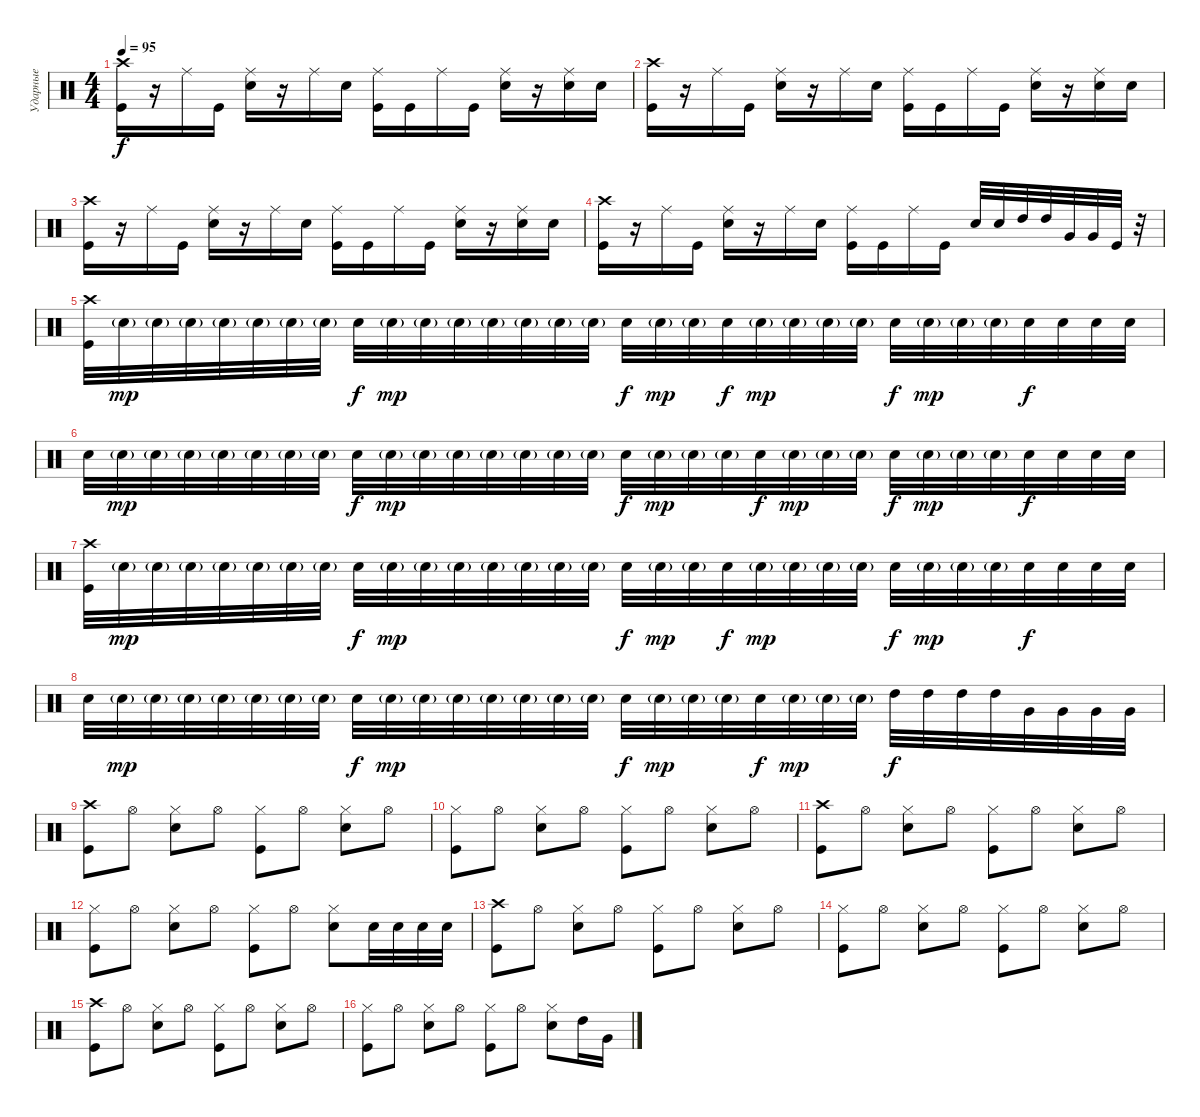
\track ("Ударные" "Ударные") {instrument percussion}
\staff {score}
\articulation defaults
\ts (4 4)
\tempo 95
\clef neutral
\ks c
("Kick (hit)" "Crash high (hit)").16{dy f} r.16 "Ride (middle)".16 "Kick (hit)".16 ("Ride (middle)" "Snare (hit) 2").16 r.16 "Ride (middle)".16 "Snare (hit) 2".16 ("Ride (middle)" "Kick (hit)").16 "Kick (hit)".16 "Ride (middle)".16 "Kick (hit)".16 ("Ride (middle)" "Snare (hit) 2").16 r.16 ("Ride (middle)" "Snare (hit) 2").16 "Snare (hit) 2".16 |
("Kick (hit)" "Crash high (hit)").16 r.16 "Ride (middle)".16 "Kick (hit)".16 ("Ride (middle)" "Snare (hit) 2").16 r.16 "Ride (middle)".16 "Snare (hit) 2".16 ("Ride (middle)" "Kick (hit)").16 "Kick (hit)".16 "Ride (middle)".16 "Kick (hit)".16 ("Ride (middle)" "Snare (hit) 2").16 r.16 ("Ride (middle)" "Snare (hit) 2").16 "Snare (hit) 2".16 |
("Kick (hit)" "Crash high (hit)").16 r.16 "Ride (middle)".16 "Kick (hit)".16 ("Ride (middle)" "Snare (hit) 2").16 r.16 "Ride (middle)".16 "Snare (hit) 2".16 ("Ride (middle)" "Kick (hit)").16 "Kick (hit)".16 "Ride (middle)".16 "Kick (hit)".16 ("Ride (middle)" "Snare (hit) 2").16 r.16 ("Ride (middle)" "Snare (hit) 2").16 "Snare (hit) 2".16 |
("Kick (hit)" "Crash high (hit)").16 r.16 "Ride (middle)".16 "Kick (hit)".16 ("Ride (middle)" "Snare (hit) 2").16 r.16 "Ride (middle)".16 "Snare (hit) 2".16 ("Ride (middle)" "Kick (hit)").16 "Kick (hit)".16 "Ride (middle)".16 "Kick (hit)".16 "Snare (hit) 2".32 "Snare (hit) 2".32 "High Tom (hit)".32 "High Tom (hit)".32 "Very Low Tom (hit)".32 "Very Low Tom (hit)".32 "Kick (hit)".32 r.32 |
("Kick (hit)" "Crash high (hit)").32 "Snare (hit) 2"{g}.32{dy mp} "Snare (hit) 2"{g}.32 "Snare (hit) 2"{g}.32 "Snare (hit) 2"{g}.32 "Snare (hit) 2"{g}.32 "Snare (hit) 2"{g}.32 "Snare (hit) 2"{g}.32 "Snare (hit) 2".32{dy f} "Snare (hit) 2"{g}.32{dy mp} "Snare (hit) 2"{g}.32 "Snare (hit) 2"{g}.32 "Snare (hit) 2"{g}.32 "Snare (hit) 2"{g}.32 "Snare (hit) 2"{g}.32 "Snare (hit) 2"{g}.32 "Snare (hit) 2".32{dy f} "Snare (hit) 2"{g}.32{dy mp} "Snare (hit) 2"{g}.32 "Snare (hit) 2".32{dy f} "Snare (hit) 2"{g}.32{dy mp} "Snare (hit) 2"{g}.32 "Snare (hit) 2"{g}.32 "Snare (hit) 2"{g}.32 "Snare (hit) 2".32{dy f} "Snare (hit) 2"{g}.32{dy mp} "Snare (hit) 2"{g}.32 "Snare (hit) 2"{g}.32 "Snare (hit) 2".32{dy f} "Snare (hit) 2".32 "Snare (hit) 2".32 "Snare (hit) 2".32 |
"Snare (hit) 2".32 "Snare (hit) 2"{g}.32{dy mp} "Snare (hit) 2"{g}.32 "Snare (hit) 2"{g}.32 "Snare (hit) 2"{g}.32 "Snare (hit) 2"{g}.32 "Snare (hit) 2"{g}.32 "Snare (hit) 2"{g}.32 "Snare (hit) 2".32{dy f} "Snare (hit) 2"{g}.32{dy mp} "Snare (hit) 2"{g}.32 "Snare (hit) 2"{g}.32 "Snare (hit) 2"{g}.32 "Snare (hit) 2"{g}.32 "Snare (hit) 2"{g}.32 "Snare (hit) 2"{g}.32 "Snare (hit) 2".32{dy f} "Snare (hit) 2"{g}.32{dy mp} "Snare (hit) 2"{g}.32 "Snare (hit) 2"{g}.32 "Snare (hit) 2".32{dy f} "Snare (hit) 2"{g}.32{dy mp} "Snare (hit) 2"{g}.32 "Snare (hit) 2"{g}.32 "Snare (hit) 2".32{dy f} "Snare (hit) 2"{g}.32{dy mp} "Snare (hit) 2"{g}.32 "Snare (hit) 2"{g}.32 "Snare (hit) 2".32{dy f} "Snare (hit) 2".32 "Snare (hit) 2".32 "Snare (hit) 2".32 |
("Kick (hit)" "Crash high (hit)").32 "Snare (hit) 2"{g}.32{dy mp} "Snare (hit) 2"{g}.32 "Snare (hit) 2"{g}.32 "Snare (hit) 2"{g}.32 "Snare (hit) 2"{g}.32 "Snare (hit) 2"{g}.32 "Snare (hit) 2"{g}.32 "Snare (hit) 2".32{dy f} "Snare (hit) 2"{g}.32{dy mp} "Snare (hit) 2"{g}.32 "Snare (hit) 2"{g}.32 "Snare (hit) 2"{g}.32 "Snare (hit) 2"{g}.32 "Snare (hit) 2"{g}.32 "Snare (hit) 2"{g}.32 "Snare (hit) 2".32{dy f} "Snare (hit) 2"{g}.32{dy mp} "Snare (hit) 2"{g}.32 "Snare (hit) 2".32{dy f} "Snare (hit) 2"{g}.32{dy mp} "Snare (hit) 2"{g}.32 "Snare (hit) 2"{g}.32 "Snare (hit) 2"{g}.32 "Snare (hit) 2".32{dy f} "Snare (hit) 2"{g}.32{dy mp} "Snare (hit) 2"{g}.32 "Snare (hit) 2"{g}.32 "Snare (hit) 2".32{dy f} "Snare (hit) 2".32 "Snare (hit) 2".32 "Snare (hit) 2".32 |
"Snare (hit) 2".32 "Snare (hit) 2"{g}.32{dy mp} "Snare (hit) 2"{g}.32 "Snare (hit) 2"{g}.32 "Snare (hit) 2"{g}.32 "Snare (hit) 2"{g}.32 "Snare (hit) 2"{g}.32 "Snare (hit) 2"{g}.32 "Snare (hit) 2".32{dy f} "Snare (hit) 2"{g}.32{dy mp} "Snare (hit) 2"{g}.32 "Snare (hit) 2"{g}.32 "Snare (hit) 2"{g}.32 "Snare (hit) 2"{g}.32 "Snare (hit) 2"{g}.32 "Snare (hit) 2"{g}.32 "Snare (hit) 2".32{dy f} "Snare (hit) 2"{g}.32{dy mp} "Snare (hit) 2"{g}.32 "Snare (hit) 2"{g}.32 "Snare (hit) 2".32{dy f} "Snare (hit) 2"{g}.32{dy mp} "Snare (hit) 2"{g}.32 "Snare (hit) 2"{g}.32 "High Tom (hit)".32{dy f} "High Tom (hit)".32 "High Tom (hit)".32 "High Tom (hit)".32 "Very Low Tom (hit)".32 "Very Low Tom (hit)".32 "Very Low Tom (hit)".32 "Very Low Tom (hit)".32 |
("Kick (hit)" "Crash high (hit)").8 "Hi-Hat (open)".8 ("Snare (hit) 2" "Hi-Hat (closed)").8 "Hi-Hat (open)".8 ("Kick (hit)" "Hi-Hat (closed)").8 "Hi-Hat (open)".8 ("Snare (hit) 2" "Hi-Hat (closed)").8 "Hi-Hat (open)".8 |
("Kick (hit)" "Hi-Hat (closed)").8 "Hi-Hat (open)".8 ("Snare (hit) 2" "Hi-Hat (closed)").8 "Hi-Hat (open)".8 ("Kick (hit)" "Hi-Hat (closed)").8 "Hi-Hat (open)".8 ("Snare (hit) 2" "Hi-Hat (closed)").8 "Hi-Hat (open)".8 |
("Kick (hit)" "Crash high (hit)").8 "Hi-Hat (open)".8 ("Snare (hit) 2" "Hi-Hat (closed)").8 "Hi-Hat (open)".8 ("Kick (hit)" "Hi-Hat (closed)").8 "Hi-Hat (open)".8 ("Snare (hit) 2" "Hi-Hat (closed)").8 "Hi-Hat (open)".8 |
("Kick (hit)" "Hi-Hat (closed)").8 "Hi-Hat (open)".8 ("Snare (hit) 2" "Hi-Hat (closed)").8 "Hi-Hat (open)".8 ("Kick (hit)" "Hi-Hat (closed)").8 "Hi-Hat (open)".8 ("Snare (hit) 2" "Hi-Hat (closed)").8 "Snare (hit) 2".32 "Snare (hit) 2".32 "Snare (hit) 2".32 "Snare (hit) 2".32 |
("Kick (hit)" "Crash high (hit)").8 "Hi-Hat (open)".8 ("Snare (hit) 2" "Hi-Hat (closed)").8 "Hi-Hat (open)".8 ("Kick (hit)" "Hi-Hat (closed)").8 "Hi-Hat (open)".8 ("Snare (hit) 2" "Hi-Hat (closed)").8 "Hi-Hat (open)".8 |
("Kick (hit)" "Hi-Hat (closed)").8 "Hi-Hat (open)".8 ("Snare (hit) 2" "Hi-Hat (closed)").8 "Hi-Hat (open)".8 ("Kick (hit)" "Hi-Hat (closed)").8 "Hi-Hat (open)".8 ("Snare (hit) 2" "Hi-Hat (closed)").8 "Hi-Hat (open)".8 |
("Kick (hit)" "Crash high (hit)").8 "Hi-Hat (open)".8 ("Snare (hit) 2" "Hi-Hat (closed)").8 "Hi-Hat (open)".8 ("Kick (hit)" "Hi-Hat (closed)").8 "Hi-Hat (open)".8 ("Snare (hit) 2" "Hi-Hat (closed)").8 "Hi-Hat (open)".8 |
("Kick (hit)" "Hi-Hat (closed)").8 "Hi-Hat (open)".8 ("Snare (hit) 2" "Hi-Hat (closed)").8 "Hi-Hat (open)".8 ("Kick (hit)" "Hi-Hat (closed)").8 "Hi-Hat (open)".8 ("Snare (hit) 2" "Hi-Hat (closed)").8 "High Tom (hit)".16 "Very Low Tom (hit)".16
